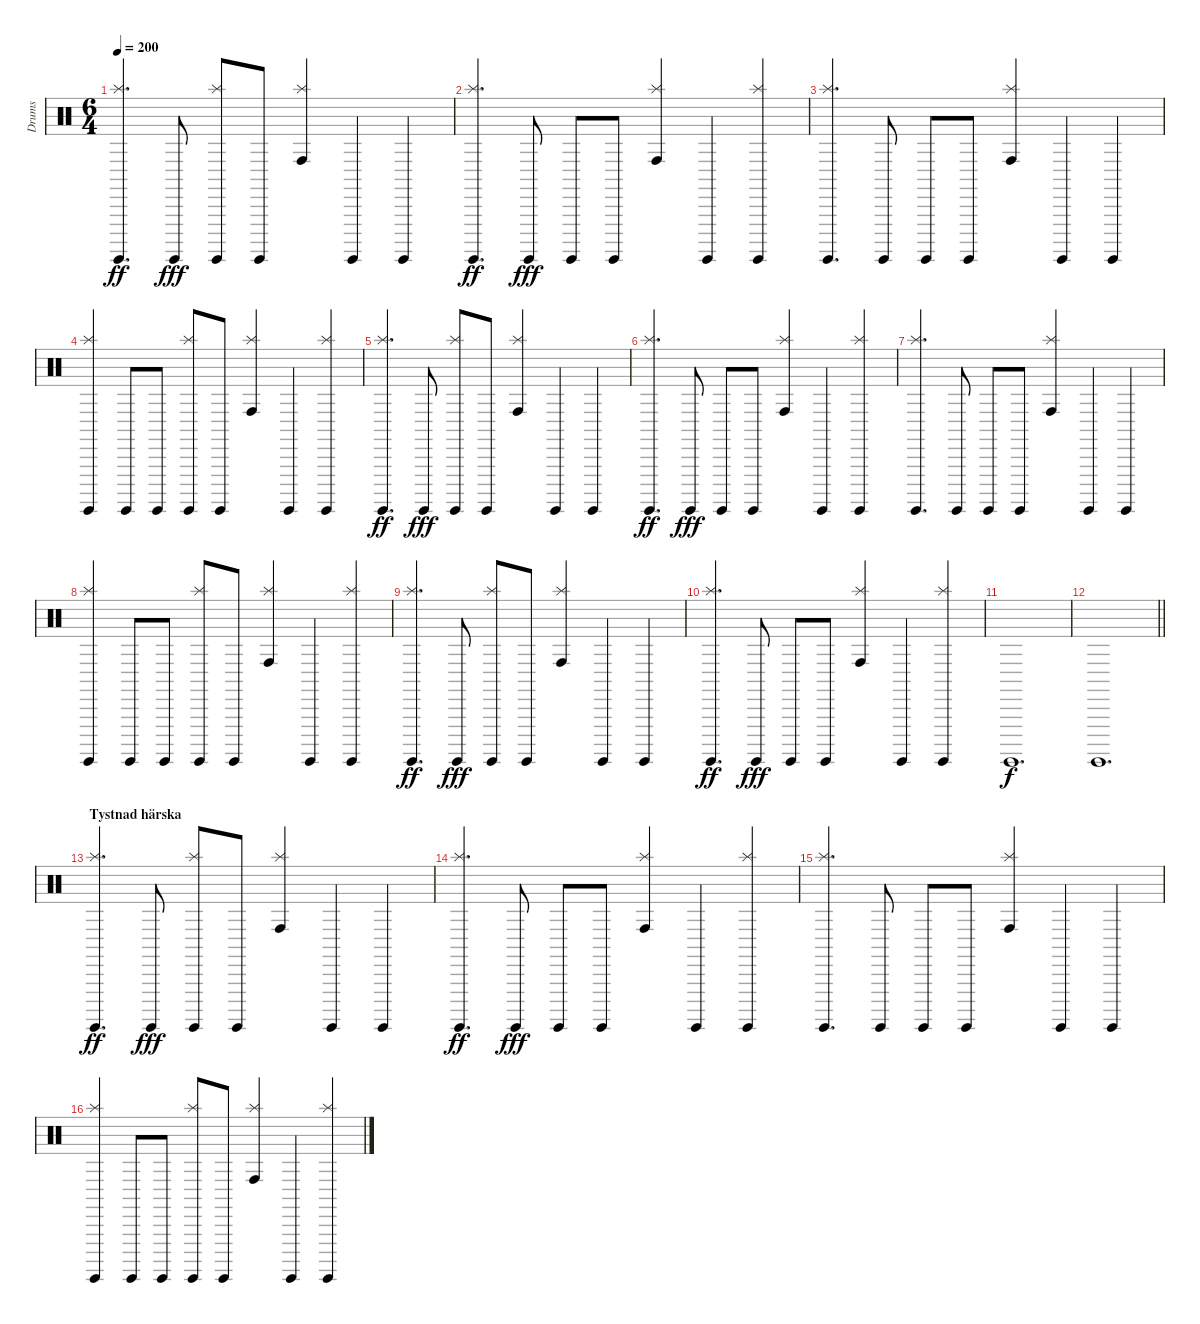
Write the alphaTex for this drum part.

\track ("Drums" "Drums") {instrument percussion}
\staff {score}
\articulation defaults
\ts (6 4)
\tempo 200
\clef neutral
\ks c
("Splash (hit)" "Surdo (hit)").4{d dy ff} "Surdo (hit)".8{dy fff} ("Splash (hit)" "Surdo (hit)").8 "Surdo (hit)".8 ("Splash (hit)" "Conga high (hit)").4 "Surdo (hit)".4 "Surdo (hit)".4 |
("Splash (hit)" "Surdo (hit)").4{d dy ff} "Surdo (hit)".8{dy fff} "Surdo (hit)".8 "Surdo (hit)".8 ("Splash (hit)" "Conga high (hit)").4 "Surdo (hit)".4 ("Splash (hit)" "Surdo (hit)").4 |
("Splash (hit)" "Surdo (hit)").4{d} "Surdo (hit)".8 "Surdo (hit)".8 "Surdo (hit)".8 ("Splash (hit)" "Conga high (hit)").4 "Surdo (hit)".4 "Surdo (hit)".4 |
("Splash (hit)" "Surdo (hit)").4 "Surdo (hit)".8 "Surdo (hit)".8 ("Splash (hit)" "Surdo (hit)").8 "Surdo (hit)".8 ("Splash (hit)" "Conga high (hit)").4 "Surdo (hit)".4 ("Splash (hit)" "Surdo (hit)").4 |
("Splash (hit)" "Surdo (hit)").4{d dy ff} "Surdo (hit)".8{dy fff} ("Splash (hit)" "Surdo (hit)").8 "Surdo (hit)".8 ("Splash (hit)" "Conga high (hit)").4 "Surdo (hit)".4 "Surdo (hit)".4 |
("Splash (hit)" "Surdo (hit)").4{d dy ff} "Surdo (hit)".8{dy fff} "Surdo (hit)".8 "Surdo (hit)".8 ("Splash (hit)" "Conga high (hit)").4 "Surdo (hit)".4 ("Splash (hit)" "Surdo (hit)").4 |
("Splash (hit)" "Surdo (hit)").4{d} "Surdo (hit)".8 "Surdo (hit)".8 "Surdo (hit)".8 ("Splash (hit)" "Conga high (hit)").4 "Surdo (hit)".4 "Surdo (hit)".4 |
("Splash (hit)" "Surdo (hit)").4 "Surdo (hit)".8 "Surdo (hit)".8 ("Splash (hit)" "Surdo (hit)").8 "Surdo (hit)".8 ("Splash (hit)" "Conga high (hit)").4 "Surdo (hit)".4 ("Splash (hit)" "Surdo (hit)").4 |
("Splash (hit)" "Surdo (hit)").4{d dy ff} "Surdo (hit)".8{dy fff} ("Splash (hit)" "Surdo (hit)").8 "Surdo (hit)".8 ("Splash (hit)" "Conga high (hit)").4 "Surdo (hit)".4 "Surdo (hit)".4 |
("Splash (hit)" "Surdo (hit)").4{d dy ff} "Surdo (hit)".8{dy fff} "Surdo (hit)".8 "Surdo (hit)".8 ("Splash (hit)" "Conga high (hit)").4 "Surdo (hit)".4 ("Splash (hit)" "Surdo (hit)").4 |
"Surdo (hit)".1{d dy f} |
\barLineRight lightlight "Surdo (hit)".1{d}
|
\section ("" "Tystnad härska")
("Splash (hit)" "Surdo (hit)").4{d dy ff} "Surdo (hit)".8{dy fff} ("Splash (hit)" "Surdo (hit)").8 "Surdo (hit)".8 ("Splash (hit)" "Conga high (hit)").4 "Surdo (hit)".4 "Surdo (hit)".4 |
("Splash (hit)" "Surdo (hit)").4{d dy ff} "Surdo (hit)".8{dy fff} "Surdo (hit)".8 "Surdo (hit)".8 ("Splash (hit)" "Conga high (hit)").4 "Surdo (hit)".4 ("Splash (hit)" "Surdo (hit)").4 |
("Splash (hit)" "Surdo (hit)").4{d} "Surdo (hit)".8 "Surdo (hit)".8 "Surdo (hit)".8 ("Splash (hit)" "Conga high (hit)").4 "Surdo (hit)".4 "Surdo (hit)".4 |
("Splash (hit)" "Surdo (hit)").4 "Surdo (hit)".8 "Surdo (hit)".8 ("Splash (hit)" "Surdo (hit)").8 "Surdo (hit)".8 ("Splash (hit)" "Conga high (hit)").4 "Surdo (hit)".4 ("Splash (hit)" "Surdo (hit)").4
